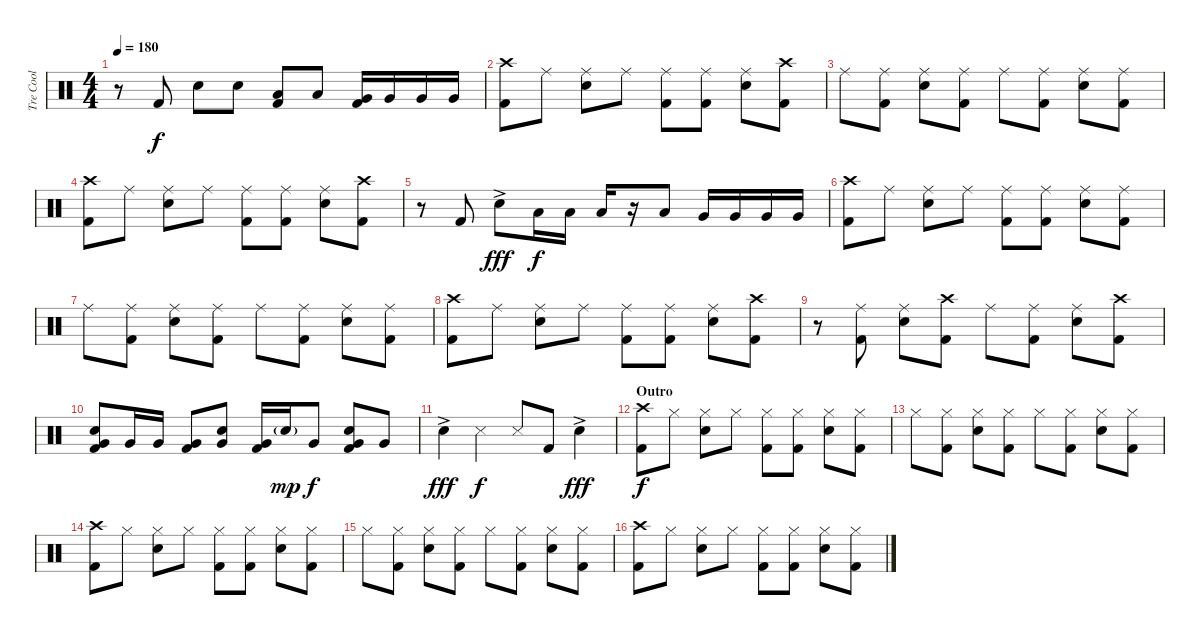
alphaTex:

\track ("Tre Cool" "Tre Cool") {instrument percussion}
\staff {score}
\articulation defaults
\ts (4 4)
\tempo 180
\clef neutral
\ks c
r.8{dy f} "Kick (hit) 2".8 "Electric Snare (hit)".8 "Electric Snare (hit)".8 ("Low Tom (hit)" "Kick (hit) 2").8 "Low Tom (hit)".8 ("Very Low Tom (hit)" "Kick (hit) 2").16 "Very Low Tom (hit)".16 "Very Low Tom (hit)".16 "Very Low Tom (hit)".16 |
("Crash high (hit)" "Kick (hit) 2").8 "Ride (middle)".8 ("Ride (middle)" "Electric Snare (hit)").8 "Ride (middle)".8 ("Ride (middle)" "Kick (hit) 2").8 ("Ride (middle)" "Kick (hit) 2").8 ("Ride (middle)" "Electric Snare (hit)").8 ("Crash high (hit)" "Kick (hit) 2").8 |
"Ride (middle)".8 ("Ride (middle)" "Kick (hit) 2").8 ("Ride (middle)" "Electric Snare (hit)").8 ("Ride (middle)" "Kick (hit) 2").8 "Ride (middle)".8 ("Ride (middle)" "Kick (hit) 2").8 ("Ride (middle)" "Electric Snare (hit)").8 ("Ride (middle)" "Kick (hit) 2").8 |
("Crash high (hit)" "Kick (hit) 2").8 "Ride (middle)".8 ("Ride (middle)" "Electric Snare (hit)").8 "Ride (middle)".8 ("Ride (middle)" "Kick (hit) 2").8 ("Ride (middle)" "Kick (hit) 2").8 ("Ride (middle)" "Electric Snare (hit)").8 ("Crash high (hit)" "Kick (hit) 2").8 |
r.8 "Kick (hit) 2".8 "Electric Snare (hit)"{ac}.8{dy fff} "Low Tom (hit)".16{dy f} "Low Tom (hit)".16 "Low Tom (hit)".16 r.16 "Low Tom (hit)".8 "Very Low Tom (hit)".16 "Very Low Tom (hit)".16 "Very Low Tom (hit)".16 "Very Low Tom (hit)".16 |
("Crash high (hit)" "Kick (hit) 2").8 "Ride (middle)".8 ("Ride (middle)" "Electric Snare (hit)").8 "Ride (middle)".8 ("Ride (middle)" "Kick (hit) 2").8 ("Ride (middle)" "Kick (hit) 2").8 ("Ride (middle)" "Electric Snare (hit)").8 ("Ride (middle)" "Kick (hit) 2").8 |
"Ride (middle)".8 ("Ride (middle)" "Kick (hit) 2").8 ("Ride (middle)" "Electric Snare (hit)").8 ("Ride (middle)" "Kick (hit) 2").8 "Ride (middle)".8 ("Ride (middle)" "Kick (hit) 2").8 ("Ride (middle)" "Electric Snare (hit)").8 ("Ride (middle)" "Kick (hit) 2").8 |
("Crash high (hit)" "Kick (hit) 2").8 "Ride (middle)".8 ("Ride (middle)" "Electric Snare (hit)").8 "Ride (middle)".8 ("Ride (middle)" "Kick (hit) 2").8 ("Ride (middle)" "Kick (hit) 2").8 ("Ride (middle)" "Electric Snare (hit)").8 ("Crash high (hit)" "Kick (hit) 2").8 |
r.8 ("Ride (middle)" "Kick (hit) 2").8 ("Ride (middle)" "Electric Snare (hit)").8 ("Crash high (hit)" "Kick (hit) 2").8 "Ride (middle)".8 ("Ride (middle)" "Kick (hit) 2").8 ("Ride (middle)" "Electric Snare (hit)").8 ("Crash high (hit)" "Kick (hit) 2").8 |
("Very Low Tom (hit)" "Electric Snare (hit)" "Kick (hit) 2").8 "Very Low Tom (hit)".16 "Very Low Tom (hit)".16 ("Very Low Tom (hit)" "Kick (hit) 2").8 ("Very Low Tom (hit)" "Electric Snare (hit)").8 ("Very Low Tom (hit)" "Kick (hit) 2").16 "Electric Snare (hit)"{g}.16{dy mp} "Very Low Tom (hit)".8{dy f} ("Very Low Tom (hit)" "Electric Snare (hit)" "Kick (hit) 2").8 "Very Low Tom (hit)".8 |
"Electric Snare (hit)"{ac}.4{dy fff} "Snare (side stick) 3".4{dy f} "Snare (side stick) 3".8 "Kick (hit) 2".8 "Electric Snare (hit)"{ac}.4{dy fff} |
\section ("" "Outro")
("Crash high (hit)" "Kick (hit) 2").8{dy f} "Hi-Hat (closed)".8 ("Hi-Hat (closed)" "Electric Snare (hit)").8 "Hi-Hat (closed)".8 ("Hi-Hat (closed)" "Kick (hit) 2").8 ("Hi-Hat (closed)" "Kick (hit) 2").8 ("Hi-Hat (closed)" "Electric Snare (hit)").8 ("Hi-Hat (closed)" "Kick (hit) 2").8 |
"Hi-Hat (closed)".8 ("Hi-Hat (closed)" "Kick (hit) 2").8 ("Hi-Hat (closed)" "Electric Snare (hit)").8 ("Hi-Hat (closed)" "Kick (hit) 2").8 "Hi-Hat (closed)".8 ("Hi-Hat (closed)" "Kick (hit) 2").8 ("Hi-Hat (closed)" "Electric Snare (hit)").8 ("Hi-Hat (closed)" "Kick (hit) 2").8 |
("Crash high (hit)" "Kick (hit) 2").8 "Hi-Hat (closed)".8 ("Hi-Hat (closed)" "Electric Snare (hit)").8 "Hi-Hat (closed)".8 ("Hi-Hat (closed)" "Kick (hit) 2").8 ("Hi-Hat (closed)" "Kick (hit) 2").8 ("Hi-Hat (closed)" "Electric Snare (hit)").8 ("Hi-Hat (closed)" "Kick (hit) 2").8 |
"Hi-Hat (closed)".8 ("Hi-Hat (closed)" "Kick (hit) 2").8 ("Hi-Hat (closed)" "Electric Snare (hit)").8 ("Hi-Hat (closed)" "Kick (hit) 2").8 "Hi-Hat (closed)".8 ("Hi-Hat (closed)" "Kick (hit) 2").8 ("Hi-Hat (closed)" "Electric Snare (hit)").8 ("Hi-Hat (closed)" "Kick (hit) 2").8 |
("Crash high (hit)" "Kick (hit) 2").8 "Hi-Hat (closed)".8 ("Hi-Hat (closed)" "Electric Snare (hit)").8 "Hi-Hat (closed)".8 ("Hi-Hat (closed)" "Kick (hit) 2").8 ("Hi-Hat (closed)" "Kick (hit) 2").8 ("Hi-Hat (closed)" "Electric Snare (hit)").8 ("Hi-Hat (closed)" "Kick (hit) 2").8
